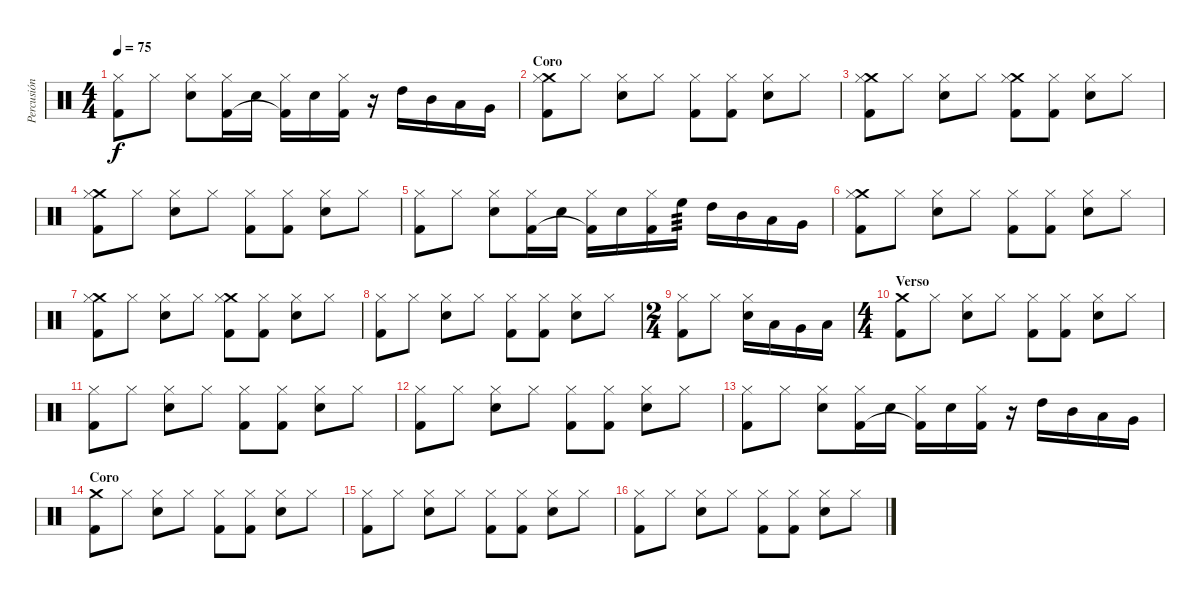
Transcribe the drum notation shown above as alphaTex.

\track ("Percusión" "Percusión") {instrument percussion}
\staff {score}
\articulation defaults
\ts (4 4)
\tempo 75
\clef neutral
\ks c
("Hi-Hat (closed)" "Kick (hit) 2").8{dy f} "Hi-Hat (closed)".8 ("Hi-Hat (closed)" "Electric Snare (hit)").8 ("Hi-Hat (closed)" "Kick (hit) 2").16 "Electric Snare (hit)".16 ("Hi-Hat (closed)" "Kick (hit) 2"{t}).16 "Electric Snare (hit)".16 ("Hi-Hat (closed)" "Kick (hit) 2").16 r.16 "High Tom (hit)".16 "Mid Tom (hit)".16 "Low Tom (hit)".16 "Very Low Tom (hit)".16 |
\section ("" "Coro")
("Crash medium (hit)" "Hi-Hat (closed)" "Kick (hit) 2").8 "Hi-Hat (closed)".8 ("Hi-Hat (closed)" "Electric Snare (hit)").8 "Hi-Hat (closed)".8 ("Hi-Hat (closed)" "Kick (hit) 2").8 ("Hi-Hat (closed)" "Kick (hit) 2").8 ("Hi-Hat (closed)" "Electric Snare (hit)").8 "Hi-Hat (closed)".8 |
("Crash medium (hit)" "Hi-Hat (closed)" "Kick (hit) 2").8 "Hi-Hat (closed)".8 ("Hi-Hat (closed)" "Electric Snare (hit)").8 "Hi-Hat (closed)".8 ("Crash medium (hit)" "Hi-Hat (closed)" "Kick (hit) 2").8 ("Hi-Hat (closed)" "Kick (hit) 2").8 ("Hi-Hat (closed)" "Electric Snare (hit)").8 "Hi-Hat (closed)".8 |
("Crash medium (hit)" "Hi-Hat (closed)" "Kick (hit) 2").8 "Hi-Hat (closed)".8 ("Hi-Hat (closed)" "Electric Snare (hit)").8 "Hi-Hat (closed)".8 ("Hi-Hat (closed)" "Kick (hit) 2").8 ("Hi-Hat (closed)" "Kick (hit) 2").8 ("Hi-Hat (closed)" "Electric Snare (hit)").8 "Hi-Hat (closed)".8 |
("Hi-Hat (closed)" "Kick (hit) 2").8 "Hi-Hat (closed)".8 ("Hi-Hat (closed)" "Electric Snare (hit)").8 ("Hi-Hat (closed)" "Kick (hit) 2").16 "Electric Snare (hit)".16 ("Hi-Hat (closed)" "Kick (hit) 2"{t}).16 "Electric Snare (hit)".16 ("Hi-Hat (closed)" "Kick (hit) 2").16 "High Floor Tom (hit)".16{tp 3} "High Tom (hit)".16 "Mid Tom (hit)".16 "Low Tom (hit)".16 "Very Low Tom (hit)".16 |
("Crash medium (hit)" "Hi-Hat (closed)" "Kick (hit) 2").8 "Hi-Hat (closed)".8 ("Hi-Hat (closed)" "Electric Snare (hit)").8 "Hi-Hat (closed)".8 ("Hi-Hat (closed)" "Kick (hit) 2").8 ("Hi-Hat (closed)" "Kick (hit) 2").8 ("Hi-Hat (closed)" "Electric Snare (hit)").8 "Hi-Hat (closed)".8 |
("Crash medium (hit)" "Hi-Hat (closed)" "Kick (hit) 2").8 "Hi-Hat (closed)".8 ("Hi-Hat (closed)" "Electric Snare (hit)").8 "Hi-Hat (closed)".8 ("Crash medium (hit)" "Hi-Hat (closed)" "Kick (hit) 2").8 ("Hi-Hat (closed)" "Kick (hit) 2").8 ("Hi-Hat (closed)" "Electric Snare (hit)").8 "Hi-Hat (closed)".8 |
("Hi-Hat (closed)" "Kick (hit) 2").8 "Hi-Hat (closed)".8 ("Hi-Hat (closed)" "Electric Snare (hit)").8 "Hi-Hat (closed)".8 ("Hi-Hat (closed)" "Kick (hit) 2").8 ("Hi-Hat (closed)" "Kick (hit) 2").8 ("Hi-Hat (closed)" "Electric Snare (hit)").8 "Hi-Hat (closed)".8 |
\ts (2 4)
("Hi-Hat (closed)" "Kick (hit) 2").8 "Hi-Hat (closed)".8 ("Hi-Hat (closed)" "Electric Snare (hit)").16 "Low Tom (hit)".16 "Very Low Tom (hit)".16 "Low Floor Tom (hit)".16 |
\ts (4 4)
\section ("" "Verso")
("Crash medium (hit)" "Kick (hit) 2").8 "Hi-Hat (closed)".8 ("Hi-Hat (closed)" "Electric Snare (hit)").8 "Hi-Hat (closed)".8 ("Hi-Hat (closed)" "Kick (hit) 2").8 ("Hi-Hat (closed)" "Kick (hit) 2").8 ("Hi-Hat (closed)" "Electric Snare (hit)").8 "Hi-Hat (closed)".8 |
("Hi-Hat (closed)" "Kick (hit) 2").8 "Hi-Hat (closed)".8 ("Hi-Hat (closed)" "Electric Snare (hit)").8 "Hi-Hat (closed)".8 ("Hi-Hat (closed)" "Kick (hit) 2").8 ("Hi-Hat (closed)" "Kick (hit) 2").8 ("Hi-Hat (closed)" "Electric Snare (hit)").8 "Hi-Hat (closed)".8 |
("Hi-Hat (closed)" "Kick (hit) 2").8 "Hi-Hat (closed)".8 ("Hi-Hat (closed)" "Electric Snare (hit)").8 "Hi-Hat (closed)".8 ("Hi-Hat (closed)" "Kick (hit) 2").8 ("Hi-Hat (closed)" "Kick (hit) 2").8 ("Hi-Hat (closed)" "Electric Snare (hit)").8 "Hi-Hat (closed)".8 |
("Hi-Hat (closed)" "Kick (hit) 2").8 "Hi-Hat (closed)".8 ("Hi-Hat (closed)" "Electric Snare (hit)").8 ("Hi-Hat (closed)" "Kick (hit) 2").16 "Electric Snare (hit)".16 ("Hi-Hat (closed)" "Kick (hit) 2"{t}).16 "Electric Snare (hit)".16 ("Hi-Hat (closed)" "Kick (hit) 2").16 r.16 "High Tom (hit)".16 "Mid Tom (hit)".16 "Low Tom (hit)".16 "Very Low Tom (hit)".16 |
\section ("" "Coro")
("Crash medium (hit)" "Kick (hit) 2").8 "Hi-Hat (closed)".8 ("Hi-Hat (closed)" "Electric Snare (hit)").8 "Hi-Hat (closed)".8 ("Hi-Hat (closed)" "Kick (hit) 2").8 ("Hi-Hat (closed)" "Kick (hit) 2").8 ("Hi-Hat (closed)" "Electric Snare (hit)").8 "Hi-Hat (closed)".8 |
("Hi-Hat (closed)" "Kick (hit) 2").8 "Hi-Hat (closed)".8 ("Hi-Hat (closed)" "Electric Snare (hit)").8 "Hi-Hat (closed)".8 ("Hi-Hat (closed)" "Kick (hit) 2").8 ("Hi-Hat (closed)" "Kick (hit) 2").8 ("Hi-Hat (closed)" "Electric Snare (hit)").8 "Hi-Hat (closed)".8 |
("Hi-Hat (closed)" "Kick (hit) 2").8 "Hi-Hat (closed)".8 ("Hi-Hat (closed)" "Electric Snare (hit)").8 "Hi-Hat (closed)".8 ("Hi-Hat (closed)" "Kick (hit) 2").8 ("Hi-Hat (closed)" "Kick (hit) 2").8 ("Hi-Hat (closed)" "Electric Snare (hit)").8 "Hi-Hat (closed)".8
